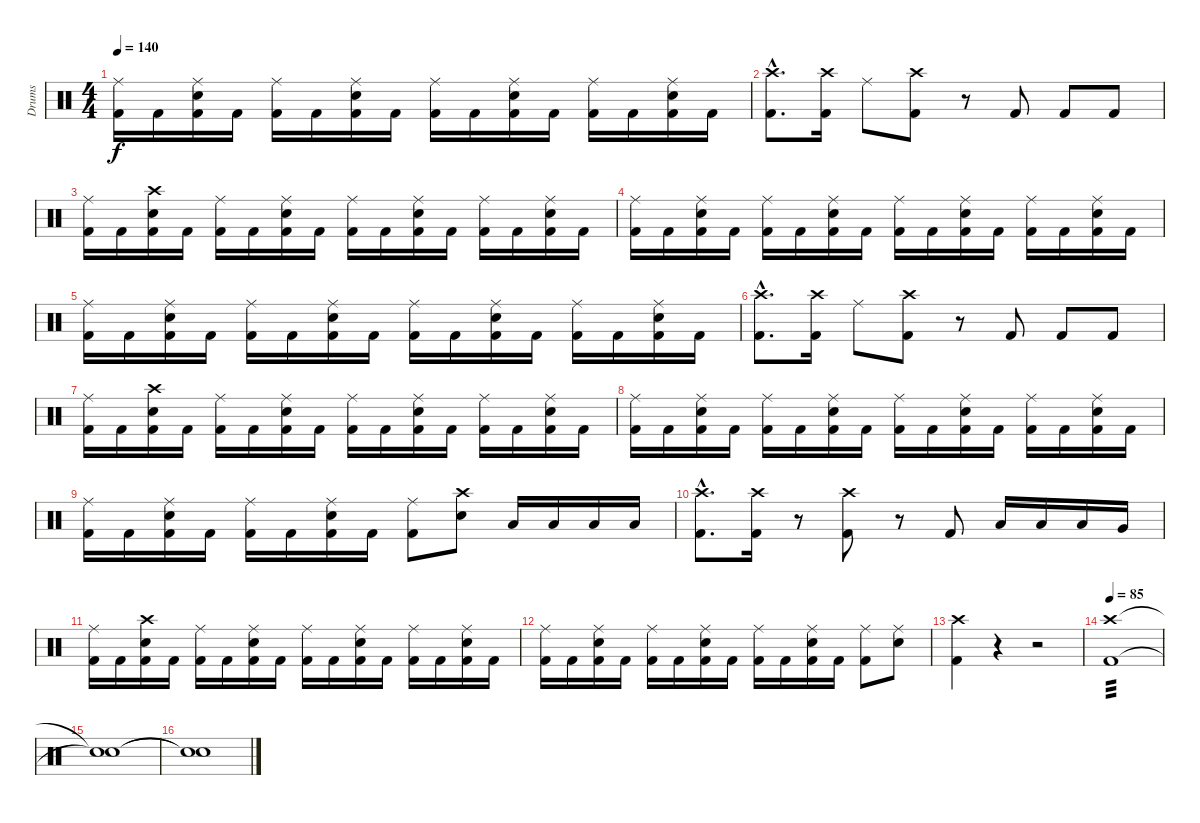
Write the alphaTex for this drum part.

\track ("Drums" "Drums") {instrument percussion}
\staff {score}
\articulation defaults
\ts (4 4)
\tempo 140
\clef neutral
\ks c
("Ride (middle)" "Kick (hit) 2").16{dy f} "Kick (hit) 2".16 ("Ride (middle)" "Electric Snare (hit)" "Kick (hit) 2").16 "Kick (hit) 2".16 ("Ride (middle)" "Kick (hit) 2").16 "Kick (hit) 2".16 ("Ride (middle)" "Electric Snare (hit)" "Kick (hit) 2").16 "Kick (hit) 2".16 ("Ride (middle)" "Kick (hit) 2").16 "Kick (hit) 2".16 ("Ride (middle)" "Electric Snare (hit)" "Kick (hit) 2").16 "Kick (hit) 2".16 ("Ride (middle)" "Kick (hit) 2").16 "Kick (hit) 2".16 ("Ride (middle)" "Electric Snare (hit)" "Kick (hit) 2").16 "Kick (hit) 2".16 |
("Crash high (hit)"{hac} "Kick (hit) 2"{hac}).8{d} ("Crash high (hit)" "Kick (hit) 2").16 "Ride (middle)".8 ("Crash high (hit)" "Kick (hit) 2").8 r.8 "Kick (hit) 2".8 "Kick (hit) 2".8 "Kick (hit) 2".8 |
("Ride (middle)" "Kick (hit) 2").16 "Kick (hit) 2".16 ("Crash high (hit)" "Electric Snare (hit)" "Kick (hit) 2").16 "Kick (hit) 2".16 ("Ride (middle)" "Kick (hit) 2").16 "Kick (hit) 2".16 ("Ride (middle)" "Electric Snare (hit)" "Kick (hit) 2").16 "Kick (hit) 2".16 ("Ride (middle)" "Kick (hit) 2").16 "Kick (hit) 2".16 ("Ride (middle)" "Electric Snare (hit)" "Kick (hit) 2").16 "Kick (hit) 2".16 ("Ride (middle)" "Kick (hit) 2").16 "Kick (hit) 2".16 ("Ride (middle)" "Electric Snare (hit)" "Kick (hit) 2").16 "Kick (hit) 2".16 |
("Ride (middle)" "Kick (hit) 2").16 "Kick (hit) 2".16 ("Ride (middle)" "Electric Snare (hit)" "Kick (hit) 2").16 "Kick (hit) 2".16 ("Ride (middle)" "Kick (hit) 2").16 "Kick (hit) 2".16 ("Ride (middle)" "Electric Snare (hit)" "Kick (hit) 2").16 "Kick (hit) 2".16 ("Ride (middle)" "Kick (hit) 2").16 "Kick (hit) 2".16 ("Ride (middle)" "Electric Snare (hit)" "Kick (hit) 2").16 "Kick (hit) 2".16 ("Ride (middle)" "Kick (hit) 2").16 "Kick (hit) 2".16 ("Ride (middle)" "Electric Snare (hit)" "Kick (hit) 2").16 "Kick (hit) 2".16 |
("Ride (middle)" "Kick (hit) 2").16 "Kick (hit) 2".16 ("Ride (middle)" "Electric Snare (hit)" "Kick (hit) 2").16 "Kick (hit) 2".16 ("Ride (middle)" "Kick (hit) 2").16 "Kick (hit) 2".16 ("Ride (middle)" "Electric Snare (hit)" "Kick (hit) 2").16 "Kick (hit) 2".16 ("Ride (middle)" "Kick (hit) 2").16 "Kick (hit) 2".16 ("Ride (middle)" "Electric Snare (hit)" "Kick (hit) 2").16 "Kick (hit) 2".16 ("Ride (middle)" "Kick (hit) 2").16 "Kick (hit) 2".16 ("Ride (middle)" "Electric Snare (hit)" "Kick (hit) 2").16 "Kick (hit) 2".16 |
("Crash high (hit)"{hac} "Kick (hit) 2"{hac}).8{d} ("Crash high (hit)" "Kick (hit) 2").16 "Ride (middle)".8 ("Crash high (hit)" "Kick (hit) 2").8 r.8 "Kick (hit) 2".8 "Kick (hit) 2".8 "Kick (hit) 2".8 |
("Ride (middle)" "Kick (hit) 2").16 "Kick (hit) 2".16 ("Crash high (hit)" "Electric Snare (hit)" "Kick (hit) 2").16 "Kick (hit) 2".16 ("Ride (middle)" "Kick (hit) 2").16 "Kick (hit) 2".16 ("Ride (middle)" "Electric Snare (hit)" "Kick (hit) 2").16 "Kick (hit) 2".16 ("Ride (middle)" "Kick (hit) 2").16 "Kick (hit) 2".16 ("Ride (middle)" "Electric Snare (hit)" "Kick (hit) 2").16 "Kick (hit) 2".16 ("Ride (middle)" "Kick (hit) 2").16 "Kick (hit) 2".16 ("Ride (middle)" "Electric Snare (hit)" "Kick (hit) 2").16 "Kick (hit) 2".16 |
("Ride (middle)" "Kick (hit) 2").16 "Kick (hit) 2".16 ("Ride (middle)" "Electric Snare (hit)" "Kick (hit) 2").16 "Kick (hit) 2".16 ("Ride (middle)" "Kick (hit) 2").16 "Kick (hit) 2".16 ("Ride (middle)" "Electric Snare (hit)" "Kick (hit) 2").16 "Kick (hit) 2".16 ("Ride (middle)" "Kick (hit) 2").16 "Kick (hit) 2".16 ("Ride (middle)" "Electric Snare (hit)" "Kick (hit) 2").16 "Kick (hit) 2".16 ("Ride (middle)" "Kick (hit) 2").16 "Kick (hit) 2".16 ("Ride (middle)" "Electric Snare (hit)" "Kick (hit) 2").16 "Kick (hit) 2".16 |
("Ride (middle)" "Kick (hit) 2").16 "Kick (hit) 2".16 ("Ride (middle)" "Electric Snare (hit)" "Kick (hit) 2").16 "Kick (hit) 2".16 ("Ride (middle)" "Kick (hit) 2").16 "Kick (hit) 2".16 ("Ride (middle)" "Electric Snare (hit)" "Kick (hit) 2").16 "Kick (hit) 2".16 ("Ride (middle)" "Kick (hit) 2").8 ("Crash high (hit)" "Electric Snare (hit)").8 "Low Tom (hit)".16 "Low Tom (hit)".16 "Low Tom (hit)".16 "Low Tom (hit)".16 |
("Crash high (hit)"{hac} "Kick (hit) 2"{hac}).8{d} ("Crash high (hit)" "Kick (hit) 2").16 r.8 ("Crash high (hit)" "Kick (hit) 2").8 r.8 "Kick (hit) 2".8 "Low Tom (hit)".16 "Low Tom (hit)".16 "Low Tom (hit)".16 "Very Low Tom (hit)".16 |
("Ride (middle)" "Kick (hit) 2").16 "Kick (hit) 2".16 ("Crash high (hit)" "Electric Snare (hit)" "Kick (hit) 2").16 "Kick (hit) 2".16 ("Ride (middle)" "Kick (hit) 2").16 "Kick (hit) 2".16 ("Ride (middle)" "Electric Snare (hit)" "Kick (hit) 2").16 "Kick (hit) 2".16 ("Ride (middle)" "Kick (hit) 2").16 "Kick (hit) 2".16 ("Ride (middle)" "Electric Snare (hit)" "Kick (hit) 2").16 "Kick (hit) 2".16 ("Ride (middle)" "Kick (hit) 2").16 "Kick (hit) 2".16 ("Ride (middle)" "Electric Snare (hit)" "Kick (hit) 2").16 "Kick (hit) 2".16 |
("Ride (middle)" "Kick (hit) 2").16 "Kick (hit) 2".16 ("Ride (middle)" "Electric Snare (hit)" "Kick (hit) 2").16 "Kick (hit) 2".16 ("Ride (middle)" "Kick (hit) 2").16 "Kick (hit) 2".16 ("Ride (middle)" "Electric Snare (hit)" "Kick (hit) 2").16 "Kick (hit) 2".16 ("Ride (middle)" "Kick (hit) 2").16 "Kick (hit) 2".16 ("Ride (middle)" "Electric Snare (hit)" "Kick (hit) 2").16 "Kick (hit) 2".16 ("Ride (middle)" "Kick (hit) 2").8 ("Ride (middle)" "Electric Snare (hit)").8 |
("Crash high (hit)" "Kick (hit) 2").4 r.4 r.2 |
\tempo 85
("Crash high (hit)" "Kick (hit) 2").1{tp 3} |
("Snare (hit)"{t} "Snare (hit)"{t}).1 |
("Snare (hit)"{t} "Snare (hit)"{t}).1
